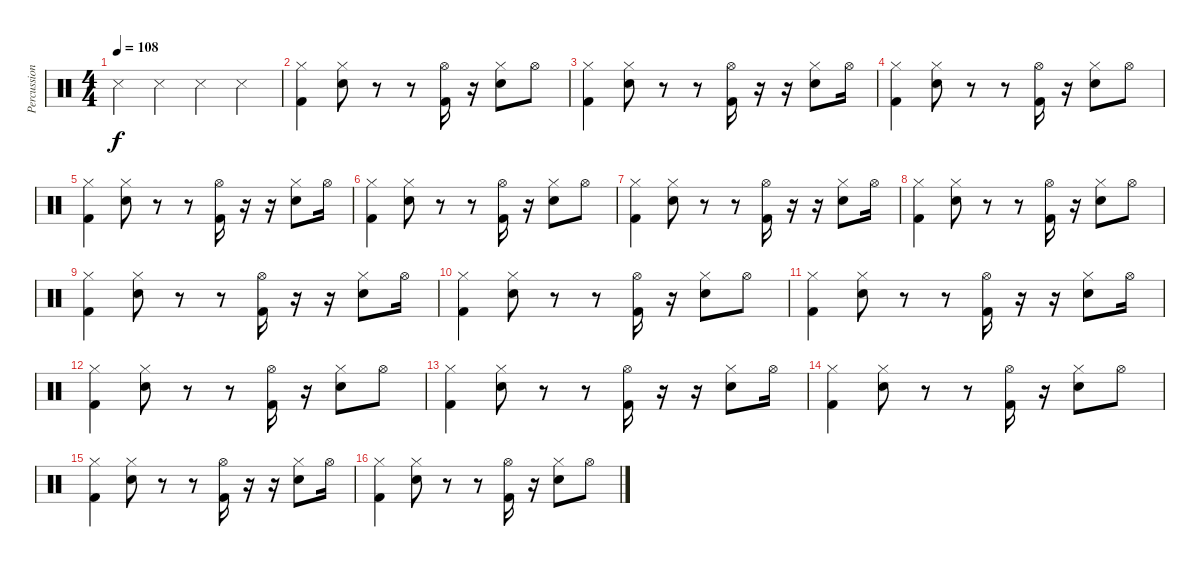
\track ("Percussions" "Percussion") {instrument percussion}
\staff {score}
\articulation defaults
\ts (4 4)
\tempo 108
\clef neutral
\ks c "Snare (side stick) 3".4{dy f} "Snare (side stick) 3".4 "Snare (side stick) 3".4 "Snare (side stick) 3".4
|
("Hi-Hat (closed)" "Kick (hit) 2").4 ("Hi-Hat (closed)" "Snare (hit) 2").8 r.8 r.8 ("Hi-Hat (open)" "Kick (hit) 2").16 r.16 ("Hi-Hat (closed)" "Snare (hit) 2").8 "Hi-Hat (open)".8 |
("Hi-Hat (closed)" "Kick (hit) 2").4 ("Hi-Hat (closed)" "Snare (hit) 2").8 r.8 r.8 ("Hi-Hat (open)" "Kick (hit) 2").16 r.16 r.16 ("Hi-Hat (closed)" "Snare (hit) 2").8 "Hi-Hat (open)".16 |
("Hi-Hat (closed)" "Kick (hit) 2").4 ("Hi-Hat (closed)" "Snare (hit) 2").8 r.8 r.8 ("Hi-Hat (open)" "Kick (hit) 2").16 r.16 ("Hi-Hat (closed)" "Snare (hit) 2").8 "Hi-Hat (open)".8 |
("Hi-Hat (closed)" "Kick (hit) 2").4 ("Hi-Hat (closed)" "Snare (hit) 2").8 r.8 r.8 ("Hi-Hat (open)" "Kick (hit) 2").16 r.16 r.16 ("Hi-Hat (closed)" "Snare (hit) 2").8 "Hi-Hat (open)".16 |
("Hi-Hat (closed)" "Kick (hit) 2").4 ("Hi-Hat (closed)" "Snare (hit) 2").8 r.8 r.8 ("Hi-Hat (open)" "Kick (hit) 2").16 r.16 ("Hi-Hat (closed)" "Snare (hit) 2").8 "Hi-Hat (open)".8 |
("Hi-Hat (closed)" "Kick (hit) 2").4 ("Hi-Hat (closed)" "Snare (hit) 2").8 r.8 r.8 ("Hi-Hat (open)" "Kick (hit) 2").16 r.16 r.16 ("Hi-Hat (closed)" "Snare (hit) 2").8 "Hi-Hat (open)".16 |
("Hi-Hat (closed)" "Kick (hit) 2").4 ("Hi-Hat (closed)" "Snare (hit) 2").8 r.8 r.8 ("Hi-Hat (open)" "Kick (hit) 2").16 r.16 ("Hi-Hat (closed)" "Snare (hit) 2").8 "Hi-Hat (open)".8 |
("Hi-Hat (closed)" "Kick (hit) 2").4 ("Hi-Hat (closed)" "Snare (hit) 2").8 r.8 r.8 ("Hi-Hat (open)" "Kick (hit) 2").16 r.16 r.16 ("Hi-Hat (closed)" "Snare (hit) 2").8 "Hi-Hat (open)".16 |
("Hi-Hat (closed)" "Kick (hit) 2").4 ("Hi-Hat (closed)" "Snare (hit) 2").8 r.8 r.8 ("Hi-Hat (open)" "Kick (hit) 2").16 r.16 ("Hi-Hat (closed)" "Snare (hit) 2").8 "Hi-Hat (open)".8 |
("Hi-Hat (closed)" "Kick (hit) 2").4 ("Hi-Hat (closed)" "Snare (hit) 2").8 r.8 r.8 ("Hi-Hat (open)" "Kick (hit) 2").16 r.16 r.16 ("Hi-Hat (closed)" "Snare (hit) 2").8 "Hi-Hat (open)".16 |
("Hi-Hat (closed)" "Kick (hit) 2").4 ("Hi-Hat (closed)" "Snare (hit) 2").8 r.8 r.8 ("Hi-Hat (open)" "Kick (hit) 2").16 r.16 ("Hi-Hat (closed)" "Snare (hit) 2").8 "Hi-Hat (open)".8 |
("Hi-Hat (closed)" "Kick (hit) 2").4 ("Hi-Hat (closed)" "Snare (hit) 2").8 r.8 r.8 ("Hi-Hat (open)" "Kick (hit) 2").16 r.16 r.16 ("Hi-Hat (closed)" "Snare (hit) 2").8 "Hi-Hat (open)".16 |
("Hi-Hat (closed)" "Kick (hit) 2").4 ("Hi-Hat (closed)" "Snare (hit) 2").8 r.8 r.8 ("Hi-Hat (open)" "Kick (hit) 2").16 r.16 ("Hi-Hat (closed)" "Snare (hit) 2").8 "Hi-Hat (open)".8 |
("Hi-Hat (closed)" "Kick (hit) 2").4 ("Hi-Hat (closed)" "Snare (hit) 2").8 r.8 r.8 ("Hi-Hat (open)" "Kick (hit) 2").16 r.16 r.16 ("Hi-Hat (closed)" "Snare (hit) 2").8 "Hi-Hat (open)".16 |
("Hi-Hat (closed)" "Kick (hit) 2").4 ("Hi-Hat (closed)" "Snare (hit) 2").8 r.8 r.8 ("Hi-Hat (open)" "Kick (hit) 2").16 r.16 ("Hi-Hat (closed)" "Snare (hit) 2").8 "Hi-Hat (open)".8
